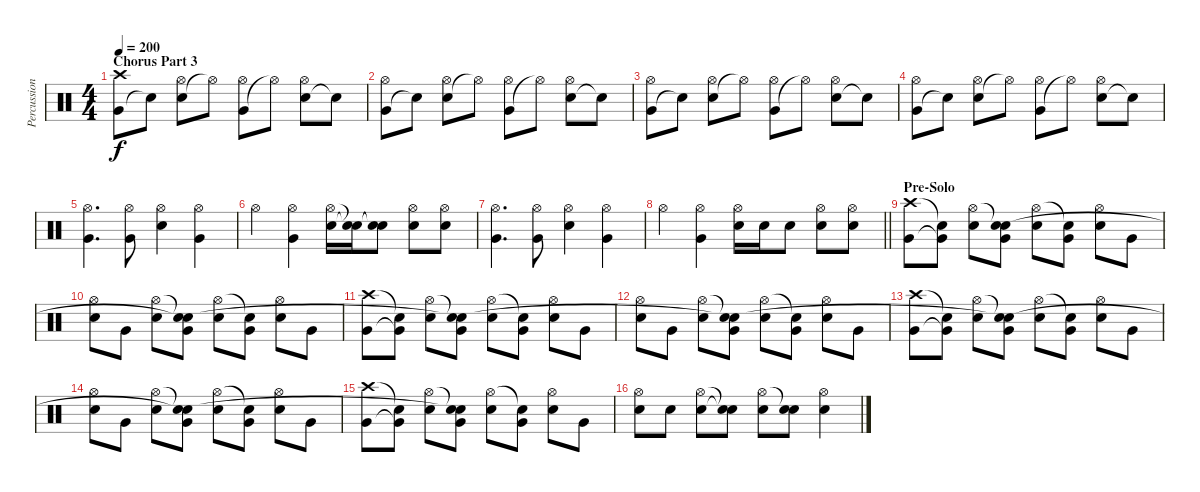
\track ("Percussion" "Percussion") {instrument percussion}
\staff {score}
\articulation defaults
\ts (4 4)
\section ("" "Chorus Part 3")
\tempo 200
\clef neutral
\ks c
("Very Low Tom (hit)" "Crash high (hit)").8{dy f} "Snare (hit)"{t}.8 ("Snare (hit) 2" "Hi-Hat (open)").8 "Hi-Hat (open)"{t}.8 ("Very Low Tom (hit)" "Hi-Hat (open)").8 "Hi-Hat (open)"{t}.8 ("Snare (hit) 2" "Hi-Hat (open)").8 "Snare (hit)"{t}.8 |
("Very Low Tom (hit)" "Hi-Hat (open)").8 "Snare (hit)"{t}.8 ("Snare (hit) 2" "Hi-Hat (open)").8 "Hi-Hat (open)"{t}.8 ("Very Low Tom (hit)" "Hi-Hat (open)").8 "Hi-Hat (open)"{t}.8 ("Snare (hit) 2" "Hi-Hat (open)").8 "Snare (hit)"{t}.8 |
("Very Low Tom (hit)" "Hi-Hat (open)").8 "Snare (hit)"{t}.8 ("Snare (hit) 2" "Hi-Hat (open)").8 "Hi-Hat (open)"{t}.8 ("Very Low Tom (hit)" "Hi-Hat (open)").8 "Hi-Hat (open)"{t}.8 ("Snare (hit) 2" "Hi-Hat (open)").8 "Snare (hit)"{t}.8 |
("Very Low Tom (hit)" "Hi-Hat (open)").8 "Snare (hit)"{t}.8 ("Snare (hit) 2" "Hi-Hat (open)").8 "Hi-Hat (open)"{t}.8 ("Very Low Tom (hit)" "Hi-Hat (open)").8 "Hi-Hat (open)"{t}.8 ("Snare (hit) 2" "Hi-Hat (open)").8 "Snare (hit)"{t}.8 |
("Very Low Tom (hit)" "Hi-Hat (open)").4{d} ("Very Low Tom (hit)" "Hi-Hat (open)").8 ("Snare (hit) 2" "Hi-Hat (open)").4 ("Very Low Tom (hit)" "Hi-Hat (open)").4 |
"Hi-Hat (open)".4 ("Very Low Tom (hit)" "Hi-Hat (open)").4 ("Snare (hit) 2" "Hi-Hat (open)").16 ("Snare (hit)"{t} "Snare (hit)"{t}).16 ("Snare (hit)"{t} "Snare (hit)"{t}).8 ("Snare (hit) 2" "Hi-Hat (open)").8 ("Snare (hit) 2" "Hi-Hat (open)").8 |
("Very Low Tom (hit)" "Hi-Hat (open)").4{d} ("Very Low Tom (hit)" "Hi-Hat (open)").8 ("Snare (hit) 2" "Hi-Hat (open)").4 ("Very Low Tom (hit)" "Hi-Hat (open)").4 |
\barLineRight lightlight "Hi-Hat (open)".4
("Very Low Tom (hit)" "Hi-Hat (open)").4 ("Electric Snare (hit)" "Hi-Hat (open)").16 "Electric Snare (hit)".16 "Electric Snare (hit)".8 ("Snare (hit) 2" "Hi-Hat (open)").8 ("Snare (hit) 2" "Hi-Hat (open)").8 |
\section ("" "Pre-Solo")
("Very Low Tom (hit)" "Crash high (hit)").8 ("Very Low Tom (hit)"{t} "Snare (hit)"{t}).8 ("Snare (hit) 2" "Hi-Hat (open)").8 ("Very Low Tom (hit)" "Snare (hit)"{t} "Snare (hit)").8 ("Snare (hit) 2" "Hi-Hat (open)").8 ("Very Low Tom (hit)" "Snare (hit)"{t}).8 ("Snare (hit) 2" "Hi-Hat (open)").8 "Very Low Tom (hit)".8 |
("Snare (hit) 2" "Hi-Hat (open)").8 "Very Low Tom (hit)".8 ("Snare (hit) 2" "Hi-Hat (open)").8 ("Very Low Tom (hit)" "Snare (hit)"{t} "Snare (hit)"{t}).8 ("Snare (hit) 2" "Hi-Hat (open)").8 ("Very Low Tom (hit)" "Snare (hit)"{t}).8 ("Snare (hit) 2" "Hi-Hat (open)").8 "Very Low Tom (hit)".8 |
("Very Low Tom (hit)" "Crash high (hit)").8 ("Very Low Tom (hit)"{t} "Snare (hit)"{t}).8 ("Snare (hit) 2" "Hi-Hat (open)").8 ("Very Low Tom (hit)" "Snare (hit)"{t} "Snare (hit)"{t}).8 ("Snare (hit) 2" "Hi-Hat (open)").8 ("Very Low Tom (hit)" "Snare (hit)"{t}).8 ("Snare (hit) 2" "Hi-Hat (open)").8 "Very Low Tom (hit)".8 |
("Snare (hit) 2" "Hi-Hat (open)").8 "Very Low Tom (hit)".8 ("Snare (hit) 2" "Hi-Hat (open)").8 ("Very Low Tom (hit)" "Snare (hit)"{t} "Snare (hit)"{t}).8 ("Snare (hit) 2" "Hi-Hat (open)").8 ("Very Low Tom (hit)" "Snare (hit)"{t}).8 ("Snare (hit) 2" "Hi-Hat (open)").8 "Very Low Tom (hit)".8 |
("Very Low Tom (hit)" "Crash high (hit)").8 ("Very Low Tom (hit)"{t} "Snare (hit)"{t}).8 ("Snare (hit) 2" "Hi-Hat (open)").8 ("Very Low Tom (hit)" "Snare (hit)"{t} "Snare (hit)"{t}).8 ("Snare (hit) 2" "Hi-Hat (open)").8 ("Very Low Tom (hit)" "Snare (hit)"{t}).8 ("Snare (hit) 2" "Hi-Hat (open)").8 "Very Low Tom (hit)".8 |
("Snare (hit) 2" "Hi-Hat (open)").8 "Very Low Tom (hit)".8 ("Snare (hit) 2" "Hi-Hat (open)").8 ("Very Low Tom (hit)" "Snare (hit)"{t} "Snare (hit)"{t}).8 ("Snare (hit) 2" "Hi-Hat (open)").8 ("Very Low Tom (hit)" "Snare (hit)"{t}).8 ("Snare (hit) 2" "Hi-Hat (open)").8 "Very Low Tom (hit)".8 |
("Very Low Tom (hit)" "Crash high (hit)").8 ("Very Low Tom (hit)"{t} "Snare (hit)"{t}).8 ("Snare (hit) 2" "Hi-Hat (open)").8 ("Very Low Tom (hit)" "Snare (hit)"{t} "Snare (hit)"{t}).8 ("Snare (hit) 2" "Hi-Hat (open)").8 ("Very Low Tom (hit)" "Snare (hit)"{t}).8 ("Snare (hit) 2" "Hi-Hat (open)").8 "Very Low Tom (hit)".8 |
("Snare (hit) 2" "Hi-Hat (open)").8 "Snare (hit) 2".8 ("Snare (hit) 2" "Hi-Hat (open)").8 ("Snare (hit)"{t} "Snare (hit)"{t}).8 ("Snare (hit) 2" "Hi-Hat (open)").8 ("Snare (hit) 2" "Snare (hit)"{t}).8 ("Snare (hit) 2" "Hi-Hat (open)").4
